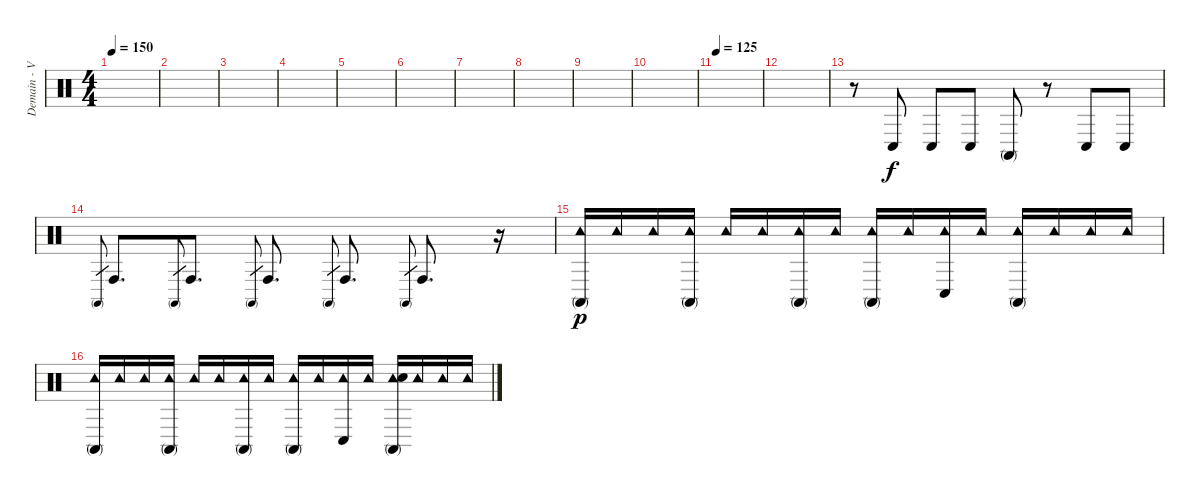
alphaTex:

\track ("Demain - Various Perc." "Demain - V") {instrument percussion}
\staff {score}
\articulation defaults
\ts (4 4)
\tempo 150
\clef neutral
\ks c
|
|
|
|
|
|
|
|
|
|
\tempo 125
|
|
r.8 "Conga low (hit)".8 "Conga low (hit)".8 "Conga low (hit)".8 "Conga high (mute)".8 r.8 "Conga low (hit)".8 "Conga low (hit)".8 |
"Conga high (mute)".8{gr} "Conga high (hit)".8{d} "Conga high (mute)".8{gr} "Conga high (hit)".8{d} "Conga high (mute)".8{gr} "Conga high (hit)".8{d} "Conga high (mute)".8{gr} "Conga high (hit)".8{d} "Conga high (mute)".8{gr} "Conga high (hit)".8{d} r.16 |
("Tambourine (hit)" "Conga high (mute)").16{dy p} "Tambourine (hit)".16 "Tambourine (hit)".16 ("Tambourine (hit)" "Conga high (mute)").16 "Tambourine (hit)".16 "Tambourine (hit)".16 ("Tambourine (hit)" "Conga high (mute)").16 "Tambourine (hit)".16 ("Tambourine (hit)" "Conga high (mute)").16 "Tambourine (hit)".16 ("Tambourine (hit)" "Conga low (hit)").16 "Tambourine (hit)".16 ("Tambourine (hit)" "Conga high (mute)").16 "Tambourine (hit)".16 "Tambourine (hit)".16 "Tambourine (hit)".16 |
("Tambourine (hit)" "Conga high (mute)").16 "Tambourine (hit)".16 "Tambourine (hit)".16 ("Tambourine (hit)" "Conga high (mute)").16 "Tambourine (hit)".16 "Tambourine (hit)".16 ("Tambourine (hit)" "Conga high (mute)").16 "Tambourine (hit)".16 ("Tambourine (hit)" "Conga high (mute)").16 "Tambourine (hit)".16 ("Tambourine (hit)" "Conga low (hit)").16 "Tambourine (hit)".16 ("Tambourine (hit)" "Conga high (mute)" "Hand Clap (hit)").16 "Tambourine (hit)".16 "Tambourine (hit)".16 "Tambourine (hit)".16
